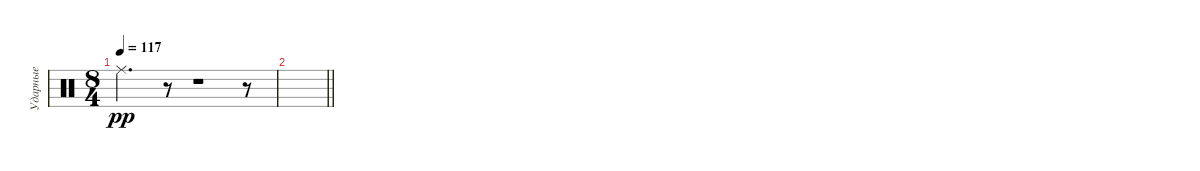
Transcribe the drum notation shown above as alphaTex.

\track ("Ударные" "Ударные") {instrument percussion}
\staff {score}
\articulation defaults
\ts (8 4)
\tempo 117
\clef neutral
\ks c "Ride (middle)".2{d dy pp}
r.8 r.1 r.8 |
\barLineRight lightlight
